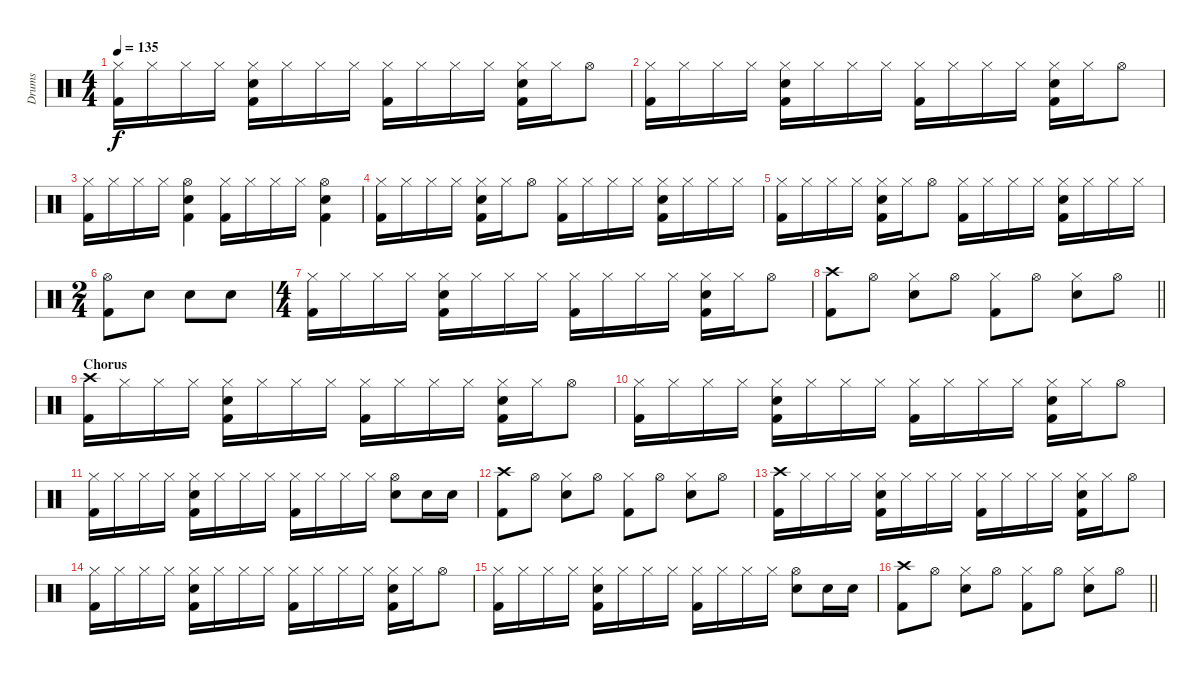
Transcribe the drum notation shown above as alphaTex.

\track ("Drums" "Drums") {instrument percussion}
\staff {score}
\articulation defaults
\ts (4 4)
\tempo 135
\clef neutral
\ks c
("Hi-Hat (closed)" "Kick (hit) 2").16{dy f} "Hi-Hat (closed)".16 "Hi-Hat (closed)".16 "Hi-Hat (closed)".16 ("Hi-Hat (closed)" "Electric Snare (hit)" "Kick (hit) 2").16 "Hi-Hat (closed)".16 "Hi-Hat (closed)".16 "Hi-Hat (closed)".16 ("Hi-Hat (closed)" "Kick (hit) 2").16 "Hi-Hat (closed)".16 "Hi-Hat (closed)".16 "Hi-Hat (closed)".16 ("Hi-Hat (closed)" "Electric Snare (hit)" "Kick (hit) 2").16 "Hi-Hat (closed)".16 "Hi-Hat (open)".8 |
("Hi-Hat (closed)" "Kick (hit) 2").16 "Hi-Hat (closed)".16 "Hi-Hat (closed)".16 "Hi-Hat (closed)".16 ("Hi-Hat (closed)" "Electric Snare (hit)" "Kick (hit) 2").16 "Hi-Hat (closed)".16 "Hi-Hat (closed)".16 "Hi-Hat (closed)".16 ("Hi-Hat (closed)" "Kick (hit) 2").16 "Hi-Hat (closed)".16 "Hi-Hat (closed)".16 "Hi-Hat (closed)".16 ("Hi-Hat (closed)" "Electric Snare (hit)" "Kick (hit) 2").16 "Hi-Hat (closed)".16 "Hi-Hat (open)".8 |
("Hi-Hat (closed)" "Kick (hit) 2").16 "Hi-Hat (closed)".16 "Hi-Hat (closed)".16 "Hi-Hat (closed)".16 ("Hi-Hat (open)" "Electric Snare (hit)" "Kick (hit) 2").4 ("Hi-Hat (closed)" "Kick (hit) 2").16 "Hi-Hat (closed)".16 "Hi-Hat (closed)".16 "Hi-Hat (closed)".16 ("Hi-Hat (open)" "Electric Snare (hit)" "Kick (hit) 2").4 |
("Hi-Hat (closed)" "Kick (hit) 2").16 "Hi-Hat (closed)".16 "Hi-Hat (closed)".16 "Hi-Hat (closed)".16 ("Hi-Hat (closed)" "Electric Snare (hit)" "Kick (hit) 2").16 "Hi-Hat (closed)".16 "Hi-Hat (open)".8 ("Hi-Hat (closed)" "Kick (hit) 2").16 "Hi-Hat (closed)".16 "Hi-Hat (closed)".16 "Hi-Hat (closed)".16 ("Hi-Hat (closed)" "Electric Snare (hit)" "Kick (hit) 2").16 "Hi-Hat (closed)".16 "Hi-Hat (closed)".16 "Hi-Hat (closed)".16 |
("Hi-Hat (closed)" "Kick (hit) 2").16 "Hi-Hat (closed)".16 "Hi-Hat (closed)".16 "Hi-Hat (closed)".16 ("Hi-Hat (closed)" "Electric Snare (hit)" "Kick (hit) 2").16 "Hi-Hat (closed)".16 "Hi-Hat (open)".8 ("Hi-Hat (closed)" "Kick (hit) 2").16 "Hi-Hat (closed)".16 "Hi-Hat (closed)".16 "Hi-Hat (closed)".16 ("Hi-Hat (closed)" "Electric Snare (hit)" "Kick (hit) 2").16 "Hi-Hat (closed)".16 "Hi-Hat (closed)".16 "Hi-Hat (closed)".16 |
\ts (2 4)
("Hi-Hat (open)" "Kick (hit) 2").8 "Electric Snare (hit)".8 "Electric Snare (hit)".8 "Electric Snare (hit)".8 |
\ts (4 4)
("Hi-Hat (closed)" "Kick (hit) 2").16 "Hi-Hat (closed)".16 "Hi-Hat (closed)".16 "Hi-Hat (closed)".16 ("Hi-Hat (closed)" "Electric Snare (hit)" "Kick (hit) 2").16 "Hi-Hat (closed)".16 "Hi-Hat (closed)".16 "Hi-Hat (closed)".16 ("Hi-Hat (closed)" "Kick (hit) 2").16 "Hi-Hat (closed)".16 "Hi-Hat (closed)".16 "Hi-Hat (closed)".16 ("Hi-Hat (closed)" "Electric Snare (hit)" "Kick (hit) 2").16 "Hi-Hat (closed)".16 "Hi-Hat (open)".8 |
\barLineRight lightlight
("Crash high (hit)" "Kick (hit) 2").8 "Hi-Hat (open)".8 ("Hi-Hat (closed)" "Electric Snare (hit)").8 "Hi-Hat (open)".8 ("Hi-Hat (closed)" "Kick (hit) 2").8 "Hi-Hat (open)".8 ("Hi-Hat (closed)" "Electric Snare (hit)").8 "Hi-Hat (open)".8 |
\section ("" "Chorus")
("Crash high (hit)" "Kick (hit) 2").16 "Hi-Hat (closed)".16 "Hi-Hat (closed)".16 "Hi-Hat (closed)".16 ("Hi-Hat (closed)" "Electric Snare (hit)" "Kick (hit) 2").16 "Hi-Hat (closed)".16 "Hi-Hat (closed)".16 "Hi-Hat (closed)".16 ("Hi-Hat (closed)" "Kick (hit) 2").16 "Hi-Hat (closed)".16 "Hi-Hat (closed)".16 "Hi-Hat (closed)".16 ("Hi-Hat (closed)" "Electric Snare (hit)" "Kick (hit) 2").16 "Hi-Hat (closed)".16 "Hi-Hat (open)".8 |
("Hi-Hat (closed)" "Kick (hit) 2").16 "Hi-Hat (closed)".16 "Hi-Hat (closed)".16 "Hi-Hat (closed)".16 ("Hi-Hat (closed)" "Electric Snare (hit)" "Kick (hit) 2").16 "Hi-Hat (closed)".16 "Hi-Hat (closed)".16 "Hi-Hat (closed)".16 ("Hi-Hat (closed)" "Kick (hit) 2").16 "Hi-Hat (closed)".16 "Hi-Hat (closed)".16 "Hi-Hat (closed)".16 ("Hi-Hat (closed)" "Electric Snare (hit)" "Kick (hit) 2").16 "Hi-Hat (closed)".16 "Hi-Hat (open)".8 |
("Hi-Hat (closed)" "Kick (hit) 2").16 "Hi-Hat (closed)".16 "Hi-Hat (closed)".16 "Hi-Hat (closed)".16 ("Hi-Hat (closed)" "Electric Snare (hit)" "Kick (hit) 2").16 "Hi-Hat (closed)".16 "Hi-Hat (closed)".16 "Hi-Hat (closed)".16 ("Hi-Hat (closed)" "Kick (hit) 2").16 "Hi-Hat (closed)".16 "Hi-Hat (closed)".16 "Hi-Hat (closed)".16 ("Hi-Hat (open)" "Electric Snare (hit)").8 "Electric Snare (hit)".16 "Electric Snare (hit)".16 |
("Crash high (hit)" "Kick (hit) 2").8 "Hi-Hat (open)".8 ("Hi-Hat (closed)" "Electric Snare (hit)").8 "Hi-Hat (open)".8 ("Hi-Hat (closed)" "Kick (hit) 2").8 "Hi-Hat (open)".8 ("Hi-Hat (closed)" "Electric Snare (hit)").8 "Hi-Hat (open)".8 |
("Crash high (hit)" "Kick (hit) 2").16 "Hi-Hat (closed)".16 "Hi-Hat (closed)".16 "Hi-Hat (closed)".16 ("Hi-Hat (closed)" "Electric Snare (hit)" "Kick (hit) 2").16 "Hi-Hat (closed)".16 "Hi-Hat (closed)".16 "Hi-Hat (closed)".16 ("Hi-Hat (closed)" "Kick (hit) 2").16 "Hi-Hat (closed)".16 "Hi-Hat (closed)".16 "Hi-Hat (closed)".16 ("Hi-Hat (closed)" "Electric Snare (hit)" "Kick (hit) 2").16 "Hi-Hat (closed)".16 "Hi-Hat (open)".8 |
("Hi-Hat (closed)" "Kick (hit) 2").16 "Hi-Hat (closed)".16 "Hi-Hat (closed)".16 "Hi-Hat (closed)".16 ("Hi-Hat (closed)" "Electric Snare (hit)" "Kick (hit) 2").16 "Hi-Hat (closed)".16 "Hi-Hat (closed)".16 "Hi-Hat (closed)".16 ("Hi-Hat (closed)" "Kick (hit) 2").16 "Hi-Hat (closed)".16 "Hi-Hat (closed)".16 "Hi-Hat (closed)".16 ("Hi-Hat (closed)" "Electric Snare (hit)" "Kick (hit) 2").16 "Hi-Hat (closed)".16 "Hi-Hat (open)".8 |
("Hi-Hat (closed)" "Kick (hit) 2").16 "Hi-Hat (closed)".16 "Hi-Hat (closed)".16 "Hi-Hat (closed)".16 ("Hi-Hat (closed)" "Electric Snare (hit)" "Kick (hit) 2").16 "Hi-Hat (closed)".16 "Hi-Hat (closed)".16 "Hi-Hat (closed)".16 ("Hi-Hat (closed)" "Kick (hit) 2").16 "Hi-Hat (closed)".16 "Hi-Hat (closed)".16 "Hi-Hat (closed)".16 ("Hi-Hat (open)" "Electric Snare (hit)").8 "Electric Snare (hit)".16 "Electric Snare (hit)".16 |
\barLineRight lightlight
("Crash high (hit)" "Kick (hit) 2").8 "Hi-Hat (open)".8 ("Hi-Hat (closed)" "Electric Snare (hit)").8 "Hi-Hat (open)".8 ("Hi-Hat (closed)" "Kick (hit) 2").8 "Hi-Hat (open)".8 ("Hi-Hat (closed)" "Electric Snare (hit)").8 "Hi-Hat (open)".8
